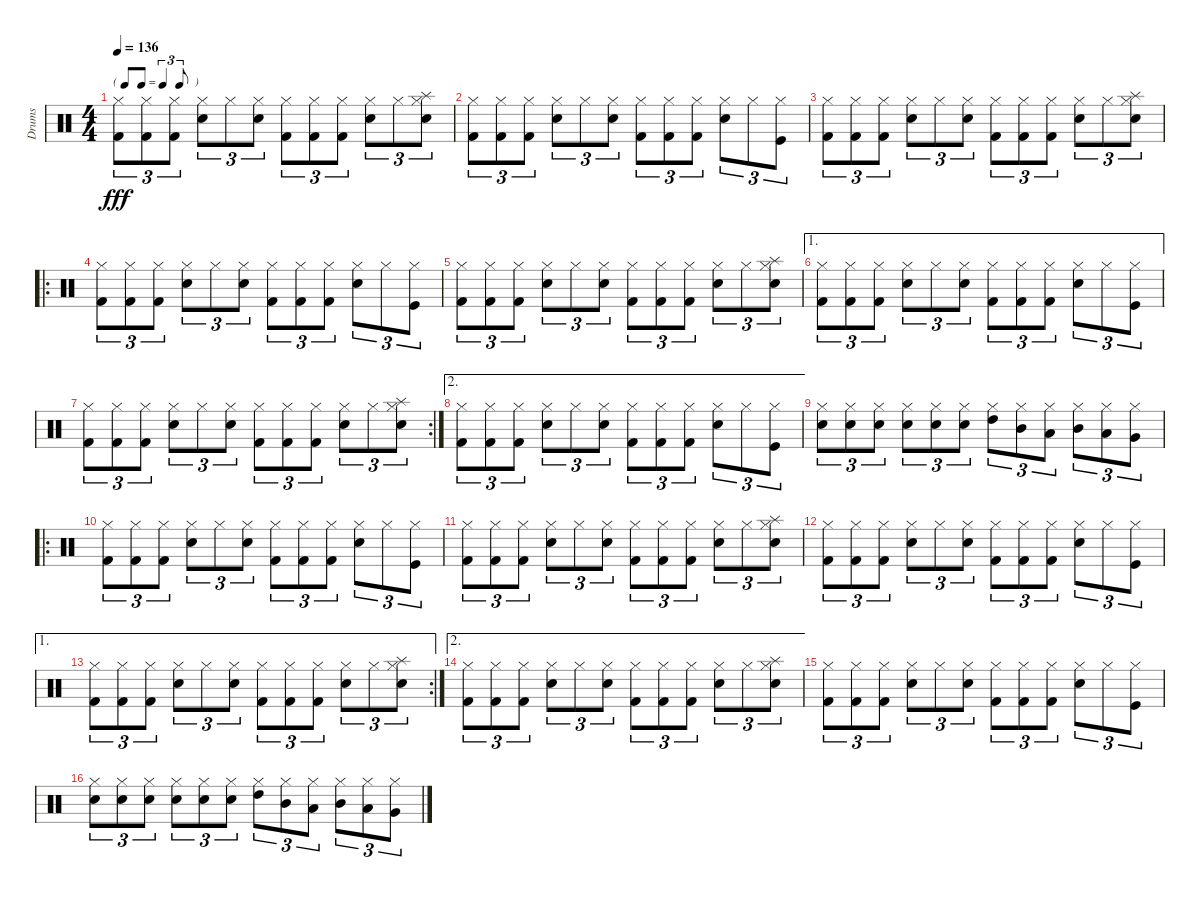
\track ("Drums" "Drums") {instrument percussion}
\staff {score}
\articulation defaults
\ts (4 4)
\tf triplet8th
\tempo 136
\clef neutral
\ks c
("Hi-Hat (closed)" "Kick (hit) 2").8{tu (3 2) dy fff} ("Hi-Hat (closed)" "Kick (hit) 2").8{tu (3 2)} ("Hi-Hat (closed)" "Kick (hit) 2").8{tu (3 2)} ("Hi-Hat (closed)" "Snare (hit) 2").8{tu (3 2)} "Hi-Hat (closed)".8{tu (3 2)} ("Hi-Hat (closed)" "Snare (hit) 2").8{tu (3 2)} ("Hi-Hat (closed)" "Kick (hit) 2").8{tu (3 2)} ("Hi-Hat (closed)" "Kick (hit) 2").8{tu (3 2)} ("Hi-Hat (closed)" "Kick (hit) 2").8{tu (3 2)} ("Hi-Hat (closed)" "Snare (hit) 2").8{tu (3 2)} "Hi-Hat (closed)".8{tu (3 2)} ("Hi-Hat (closed)" "Snare (hit) 2" "Splash (hit)").8{tu (3 2)} |
("Hi-Hat (closed)" "Kick (hit) 2").8{tu (3 2)} ("Hi-Hat (closed)" "Kick (hit) 2").8{tu (3 2)} ("Hi-Hat (closed)" "Kick (hit) 2").8{tu (3 2)} ("Hi-Hat (closed)" "Snare (hit) 2").8{tu (3 2)} "Hi-Hat (closed)".8{tu (3 2)} ("Hi-Hat (closed)" "Snare (hit) 2").8{tu (3 2)} ("Hi-Hat (closed)" "Kick (hit) 2").8{tu (3 2)} ("Hi-Hat (closed)" "Kick (hit) 2").8{tu (3 2)} ("Hi-Hat (closed)" "Kick (hit) 2").8{tu (3 2)} ("Hi-Hat (closed)" "Snare (hit) 2").8{tu (3 2)} "Hi-Hat (closed)".8{tu (3 2)} ("Hi-Hat (closed)" "Kick (hit)").8{tu (3 2)} |
("Hi-Hat (closed)" "Kick (hit) 2").8{tu (3 2)} ("Hi-Hat (closed)" "Kick (hit) 2").8{tu (3 2)} ("Hi-Hat (closed)" "Kick (hit) 2").8{tu (3 2)} ("Hi-Hat (closed)" "Snare (hit) 2").8{tu (3 2)} "Hi-Hat (closed)".8{tu (3 2)} ("Hi-Hat (closed)" "Snare (hit) 2").8{tu (3 2)} ("Hi-Hat (closed)" "Kick (hit) 2").8{tu (3 2)} ("Hi-Hat (closed)" "Kick (hit) 2").8{tu (3 2)} ("Hi-Hat (closed)" "Kick (hit) 2").8{tu (3 2)} ("Hi-Hat (closed)" "Snare (hit) 2").8{tu (3 2)} "Hi-Hat (closed)".8{tu (3 2)} ("Hi-Hat (closed)" "Snare (hit) 2" "Splash (hit)").8{tu (3 2)} |
\ro
("Hi-Hat (closed)" "Kick (hit) 2").8{tu (3 2)} ("Hi-Hat (closed)" "Kick (hit) 2").8{tu (3 2)} ("Hi-Hat (closed)" "Kick (hit) 2").8{tu (3 2)} ("Hi-Hat (closed)" "Snare (hit) 2").8{tu (3 2)} "Hi-Hat (closed)".8{tu (3 2)} ("Hi-Hat (closed)" "Snare (hit) 2").8{tu (3 2)} ("Hi-Hat (closed)" "Kick (hit) 2").8{tu (3 2)} ("Hi-Hat (closed)" "Kick (hit) 2").8{tu (3 2)} ("Hi-Hat (closed)" "Kick (hit) 2").8{tu (3 2)} ("Hi-Hat (closed)" "Snare (hit) 2").8{tu (3 2)} "Hi-Hat (closed)".8{tu (3 2)} ("Hi-Hat (closed)" "Kick (hit)").8{tu (3 2)} |
("Hi-Hat (closed)" "Kick (hit) 2").8{tu (3 2)} ("Hi-Hat (closed)" "Kick (hit) 2").8{tu (3 2)} ("Hi-Hat (closed)" "Kick (hit) 2").8{tu (3 2)} ("Hi-Hat (closed)" "Snare (hit) 2").8{tu (3 2)} "Hi-Hat (closed)".8{tu (3 2)} ("Hi-Hat (closed)" "Snare (hit) 2").8{tu (3 2)} ("Hi-Hat (closed)" "Kick (hit) 2").8{tu (3 2)} ("Hi-Hat (closed)" "Kick (hit) 2").8{tu (3 2)} ("Hi-Hat (closed)" "Kick (hit) 2").8{tu (3 2)} ("Hi-Hat (closed)" "Snare (hit) 2").8{tu (3 2)} "Hi-Hat (closed)".8{tu (3 2)} ("Hi-Hat (closed)" "Snare (hit) 2" "Splash (hit)").8{tu (3 2)} |
\ae 1
("Hi-Hat (closed)" "Kick (hit) 2").8{tu (3 2)} ("Hi-Hat (closed)" "Kick (hit) 2").8{tu (3 2)} ("Hi-Hat (closed)" "Kick (hit) 2").8{tu (3 2)} ("Hi-Hat (closed)" "Snare (hit) 2").8{tu (3 2)} "Hi-Hat (closed)".8{tu (3 2)} ("Hi-Hat (closed)" "Snare (hit) 2").8{tu (3 2)} ("Hi-Hat (closed)" "Kick (hit) 2").8{tu (3 2)} ("Hi-Hat (closed)" "Kick (hit) 2").8{tu (3 2)} ("Hi-Hat (closed)" "Kick (hit) 2").8{tu (3 2)} ("Hi-Hat (closed)" "Snare (hit) 2").8{tu (3 2)} "Hi-Hat (closed)".8{tu (3 2)} ("Hi-Hat (closed)" "Kick (hit)").8{tu (3 2)} |
\rc 2
("Hi-Hat (closed)" "Kick (hit) 2").8{tu (3 2)} ("Hi-Hat (closed)" "Kick (hit) 2").8{tu (3 2)} ("Hi-Hat (closed)" "Kick (hit) 2").8{tu (3 2)} ("Hi-Hat (closed)" "Snare (hit) 2").8{tu (3 2)} "Hi-Hat (closed)".8{tu (3 2)} ("Hi-Hat (closed)" "Snare (hit) 2").8{tu (3 2)} ("Hi-Hat (closed)" "Kick (hit) 2").8{tu (3 2)} ("Hi-Hat (closed)" "Kick (hit) 2").8{tu (3 2)} ("Hi-Hat (closed)" "Kick (hit) 2").8{tu (3 2)} ("Hi-Hat (closed)" "Snare (hit) 2").8{tu (3 2)} "Hi-Hat (closed)".8{tu (3 2)} ("Hi-Hat (closed)" "Snare (hit) 2" "Splash (hit)").8{tu (3 2)} |
\ae 2
("Hi-Hat (closed)" "Kick (hit) 2").8{tu (3 2)} ("Hi-Hat (closed)" "Kick (hit) 2").8{tu (3 2)} ("Hi-Hat (closed)" "Kick (hit) 2").8{tu (3 2)} ("Hi-Hat (closed)" "Snare (hit) 2").8{tu (3 2)} "Hi-Hat (closed)".8{tu (3 2)} ("Hi-Hat (closed)" "Snare (hit) 2").8{tu (3 2)} ("Hi-Hat (closed)" "Kick (hit) 2").8{tu (3 2)} ("Hi-Hat (closed)" "Kick (hit) 2").8{tu (3 2)} ("Hi-Hat (closed)" "Kick (hit) 2").8{tu (3 2)} ("Hi-Hat (closed)" "Snare (hit) 2").8{tu (3 2)} "Hi-Hat (closed)".8{tu (3 2)} ("Hi-Hat (closed)" "Kick (hit)").8{tu (3 2)} |
("Hi-Hat (closed)" "Snare (hit) 2").8{tu (3 2)} ("Hi-Hat (closed)" "Snare (hit) 2").8{tu (3 2)} ("Hi-Hat (closed)" "Snare (hit) 2").8{tu (3 2)} ("Hi-Hat (closed)" "Snare (hit) 2").8{tu (3 2)} ("Hi-Hat (closed)" "Snare (hit) 2").8{tu (3 2)} ("Hi-Hat (closed)" "Snare (hit) 2").8{tu (3 2)} ("Hi-Hat (closed)" "High Tom (hit)").8{tu (3 2)} ("Hi-Hat (closed)" "Mid Tom (hit)").8{tu (3 2)} ("Hi-Hat (closed)" "Low Tom (hit)").8{tu (3 2)} ("Hi-Hat (closed)" "Mid Tom (hit)").8{tu (3 2)} ("Hi-Hat (closed)" "Low Tom (hit)").8{tu (3 2)} ("Hi-Hat (closed)" "Very Low Tom (hit)").8{tu (3 2)} |
\ro
("Hi-Hat (closed)" "Kick (hit) 2").8{tu (3 2)} ("Hi-Hat (closed)" "Kick (hit) 2").8{tu (3 2)} ("Hi-Hat (closed)" "Kick (hit) 2").8{tu (3 2)} ("Hi-Hat (closed)" "Snare (hit) 2").8{tu (3 2)} "Hi-Hat (closed)".8{tu (3 2)} ("Hi-Hat (closed)" "Snare (hit) 2").8{tu (3 2)} ("Hi-Hat (closed)" "Kick (hit) 2").8{tu (3 2)} ("Hi-Hat (closed)" "Kick (hit) 2").8{tu (3 2)} ("Hi-Hat (closed)" "Kick (hit) 2").8{tu (3 2)} ("Hi-Hat (closed)" "Snare (hit) 2").8{tu (3 2)} "Hi-Hat (closed)".8{tu (3 2)} ("Hi-Hat (closed)" "Kick (hit)").8{tu (3 2)} |
("Hi-Hat (closed)" "Kick (hit) 2").8{tu (3 2)} ("Hi-Hat (closed)" "Kick (hit) 2").8{tu (3 2)} ("Hi-Hat (closed)" "Kick (hit) 2").8{tu (3 2)} ("Hi-Hat (closed)" "Snare (hit) 2").8{tu (3 2)} "Hi-Hat (closed)".8{tu (3 2)} ("Hi-Hat (closed)" "Snare (hit) 2").8{tu (3 2)} ("Hi-Hat (closed)" "Kick (hit) 2").8{tu (3 2)} ("Hi-Hat (closed)" "Kick (hit) 2").8{tu (3 2)} ("Hi-Hat (closed)" "Kick (hit) 2").8{tu (3 2)} ("Hi-Hat (closed)" "Snare (hit) 2").8{tu (3 2)} "Hi-Hat (closed)".8{tu (3 2)} ("Hi-Hat (closed)" "Snare (hit) 2" "Splash (hit)").8{tu (3 2)} |
("Hi-Hat (closed)" "Kick (hit) 2").8{tu (3 2)} ("Hi-Hat (closed)" "Kick (hit) 2").8{tu (3 2)} ("Hi-Hat (closed)" "Kick (hit) 2").8{tu (3 2)} ("Hi-Hat (closed)" "Snare (hit) 2").8{tu (3 2)} "Hi-Hat (closed)".8{tu (3 2)} ("Hi-Hat (closed)" "Snare (hit) 2").8{tu (3 2)} ("Hi-Hat (closed)" "Kick (hit) 2").8{tu (3 2)} ("Hi-Hat (closed)" "Kick (hit) 2").8{tu (3 2)} ("Hi-Hat (closed)" "Kick (hit) 2").8{tu (3 2)} ("Hi-Hat (closed)" "Snare (hit) 2").8{tu (3 2)} "Hi-Hat (closed)".8{tu (3 2)} ("Hi-Hat (closed)" "Kick (hit)").8{tu (3 2)} |
\ae 1
\rc 2
("Hi-Hat (closed)" "Kick (hit) 2").8{tu (3 2)} ("Hi-Hat (closed)" "Kick (hit) 2").8{tu (3 2)} ("Hi-Hat (closed)" "Kick (hit) 2").8{tu (3 2)} ("Hi-Hat (closed)" "Snare (hit) 2").8{tu (3 2)} "Hi-Hat (closed)".8{tu (3 2)} ("Hi-Hat (closed)" "Snare (hit) 2").8{tu (3 2)} ("Hi-Hat (closed)" "Kick (hit) 2").8{tu (3 2)} ("Hi-Hat (closed)" "Kick (hit) 2").8{tu (3 2)} ("Hi-Hat (closed)" "Kick (hit) 2").8{tu (3 2)} ("Hi-Hat (closed)" "Snare (hit) 2").8{tu (3 2)} "Hi-Hat (closed)".8{tu (3 2)} ("Hi-Hat (closed)" "Snare (hit) 2" "Splash (hit)").8{tu (3 2)} |
\ae 2
("Hi-Hat (closed)" "Kick (hit) 2").8{tu (3 2)} ("Hi-Hat (closed)" "Kick (hit) 2").8{tu (3 2)} ("Hi-Hat (closed)" "Kick (hit) 2").8{tu (3 2)} ("Hi-Hat (closed)" "Snare (hit) 2").8{tu (3 2)} "Hi-Hat (closed)".8{tu (3 2)} ("Hi-Hat (closed)" "Snare (hit) 2").8{tu (3 2)} ("Hi-Hat (closed)" "Kick (hit) 2").8{tu (3 2)} ("Hi-Hat (closed)" "Kick (hit) 2").8{tu (3 2)} ("Hi-Hat (closed)" "Kick (hit) 2").8{tu (3 2)} ("Hi-Hat (closed)" "Snare (hit) 2").8{tu (3 2)} "Hi-Hat (closed)".8{tu (3 2)} ("Hi-Hat (closed)" "Snare (hit) 2" "Splash (hit)").8{tu (3 2)} |
("Hi-Hat (closed)" "Kick (hit) 2").8{tu (3 2)} ("Hi-Hat (closed)" "Kick (hit) 2").8{tu (3 2)} ("Hi-Hat (closed)" "Kick (hit) 2").8{tu (3 2)} ("Hi-Hat (closed)" "Snare (hit) 2").8{tu (3 2)} "Hi-Hat (closed)".8{tu (3 2)} ("Hi-Hat (closed)" "Snare (hit) 2").8{tu (3 2)} ("Hi-Hat (closed)" "Kick (hit) 2").8{tu (3 2)} ("Hi-Hat (closed)" "Kick (hit) 2").8{tu (3 2)} ("Hi-Hat (closed)" "Kick (hit) 2").8{tu (3 2)} ("Hi-Hat (closed)" "Snare (hit) 2").8{tu (3 2)} "Hi-Hat (closed)".8{tu (3 2)} ("Hi-Hat (closed)" "Kick (hit)").8{tu (3 2)} |
("Hi-Hat (closed)" "Snare (hit) 2").8{tu (3 2)} ("Hi-Hat (closed)" "Snare (hit) 2").8{tu (3 2)} ("Hi-Hat (closed)" "Snare (hit) 2").8{tu (3 2)} ("Hi-Hat (closed)" "Snare (hit) 2").8{tu (3 2)} ("Hi-Hat (closed)" "Snare (hit) 2").8{tu (3 2)} ("Hi-Hat (closed)" "Snare (hit) 2").8{tu (3 2)} ("Hi-Hat (closed)" "High Tom (hit)").8{tu (3 2)} ("Hi-Hat (closed)" "Mid Tom (hit)").8{tu (3 2)} ("Hi-Hat (closed)" "Low Tom (hit)").8{tu (3 2)} ("Hi-Hat (closed)" "Mid Tom (hit)").8{tu (3 2)} ("Hi-Hat (closed)" "Low Tom (hit)").8{tu (3 2)} ("Hi-Hat (closed)" "Very Low Tom (hit)").8{tu (3 2)}
